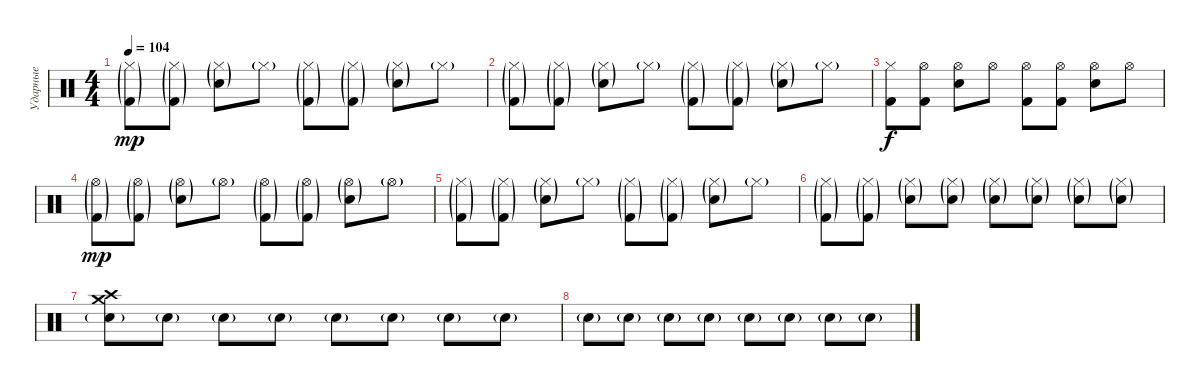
\track ("Ударные" "Ударные") {instrument percussion}
\staff {score}
\articulation defaults
\ts (4 4)
\tempo 104
\clef neutral
\ks c
("Hi-Hat (closed)"{g} "Kick (hit) 2"{g}).8{dy mp} ("Hi-Hat (closed)"{g} "Kick (hit) 2"{g}).8 ("Hi-Hat (closed)"{g} "Electric Snare (hit)"{g}).8 "Hi-Hat (closed)"{g}.8 ("Hi-Hat (closed)"{g} "Kick (hit) 2"{g}).8 ("Hi-Hat (closed)"{g} "Kick (hit) 2"{g}).8 ("Hi-Hat (closed)"{g} "Electric Snare (hit)"{g}).8 "Hi-Hat (closed)"{g}.8 |
("Hi-Hat (closed)"{g} "Kick (hit) 2"{g}).8 ("Hi-Hat (closed)"{g} "Kick (hit) 2"{g}).8 ("Hi-Hat (closed)"{g} "Electric Snare (hit)"{g}).8 "Hi-Hat (closed)"{g}.8 ("Hi-Hat (closed)"{g} "Kick (hit) 2"{g}).8 ("Hi-Hat (closed)"{g} "Kick (hit) 2"{g}).8 ("Hi-Hat (closed)"{g} "Electric Snare (hit)"{g}).8 "Hi-Hat (closed)"{g}.8 |
("Hi-Hat (closed)" "Kick (hit) 2").8{dy f volume 0} ("Hi-Hat (open)" "Kick (hit) 2").8 ("Hi-Hat (open)" "Electric Snare (hit)").8 "Hi-Hat (open)".8 ("Hi-Hat (open)" "Kick (hit) 2").8 ("Hi-Hat (open)" "Kick (hit) 2").8 ("Hi-Hat (open)" "Electric Snare (hit)").8 "Hi-Hat (open)".8 |
("Hi-Hat (open)"{g} "Kick (hit) 2"{g}).8{dy mp} ("Hi-Hat (open)"{g} "Kick (hit) 2"{g}).8 ("Hi-Hat (open)"{g} "Electric Snare (hit)"{g}).8 "Hi-Hat (open)"{g}.8 ("Hi-Hat (open)"{g} "Kick (hit) 2"{g}).8 ("Hi-Hat (open)"{g} "Kick (hit) 2"{g}).8 ("Hi-Hat (open)"{g} "Electric Snare (hit)"{g}).8 "Hi-Hat (open)"{g}.8 |
("Hi-Hat (closed)"{g} "Kick (hit) 2"{g}).8{volume 16} ("Hi-Hat (closed)"{g} "Kick (hit) 2"{g}).8 ("Hi-Hat (closed)"{g} "Electric Snare (hit)"{g}).8 "Hi-Hat (closed)"{g}.8 ("Hi-Hat (closed)"{g} "Kick (hit) 2"{g}).8 ("Hi-Hat (closed)"{g} "Kick (hit) 2"{g}).8 ("Hi-Hat (closed)"{g} "Electric Snare (hit)"{g}).8 "Hi-Hat (closed)"{g}.8 |
("Hi-Hat (closed)"{g} "Kick (hit) 2"{g}).8 ("Hi-Hat (closed)"{g} "Kick (hit) 2"{g}).8 ("Hi-Hat (closed)"{g} "Electric Snare (hit)"{g}).8 ("Hi-Hat (closed)"{g} "Electric Snare (hit)"{g}).8 ("Hi-Hat (closed)"{g} "Electric Snare (hit)"{g}).8 ("Hi-Hat (closed)"{g} "Electric Snare (hit)"{g}).8 ("Hi-Hat (closed)"{g} "Electric Snare (hit)"{g}).8 ("Hi-Hat (closed)"{g} "Electric Snare (hit)"{g}).8 |
("Crash high (hit)" "Crash medium (hit)" "Electric Snare (hit)"{g}).8{volume 0} "Electric Snare (hit)"{g}.8 "Electric Snare (hit)"{g}.8 "Electric Snare (hit)"{g}.8 "Electric Snare (hit)"{g}.8 "Electric Snare (hit)"{g}.8 "Electric Snare (hit)"{g}.8 "Electric Snare (hit)"{g}.8 |
"Electric Snare (hit)"{g}.8 "Electric Snare (hit)"{g}.8 "Electric Snare (hit)"{g}.8 "Electric Snare (hit)"{g}.8 "Electric Snare (hit)"{g}.8 "Electric Snare (hit)"{g}.8 "Electric Snare (hit)"{g}.8 "Electric Snare (hit)"{g}.8
